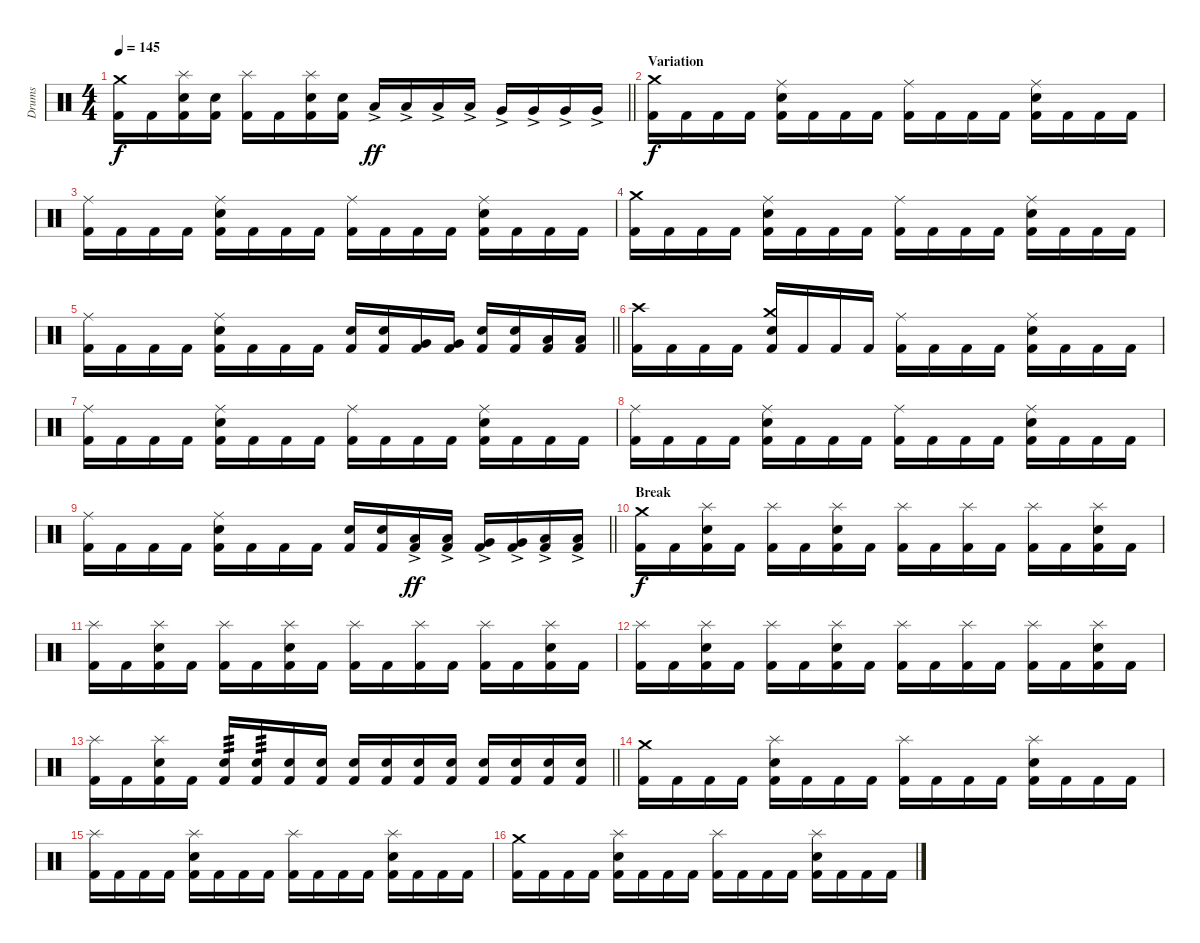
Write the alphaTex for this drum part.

\track ("Drums" "Drums") {instrument percussion}
\staff {score}
\articulation defaults
\ts (4 4)
\tempo 145
\clef neutral
\barLineRight lightlight
\ks c
("Kick (hit) 2" "Crash medium (hit)").16{dy f} "Kick (hit) 2".16 ("Kick (hit) 2" "Snare (hit) 2" "Splash (hit)").16 ("Kick (hit) 2" "Snare (hit) 2").16 ("Kick (hit) 2" "Splash (hit)").16 "Kick (hit) 2".16 ("Kick (hit) 2" "Snare (hit) 2" "Splash (hit)").16 ("Kick (hit) 2" "Snare (hit) 2").16 "Low Tom (hit)"{ac}.16{dy ff} "Low Tom (hit)"{ac}.16 "Low Tom (hit)"{ac}.16 "Low Tom (hit)"{ac}.16 "Very Low Tom (hit)"{ac}.16 "Very Low Tom (hit)"{ac}.16 "Very Low Tom (hit)"{ac}.16 "Very Low Tom (hit)"{ac}.16 |
\section ("" "Variation")
("Kick (hit) 2" "Crash medium (hit)").16{dy f} "Kick (hit) 2".16 "Kick (hit) 2".16 "Kick (hit) 2".16 ("Kick (hit) 2" "Snare (hit) 2" "Ride (middle)").16 "Kick (hit) 2".16 "Kick (hit) 2".16 "Kick (hit) 2".16 ("Kick (hit) 2" "Ride (middle)").16 "Kick (hit) 2".16 "Kick (hit) 2".16 "Kick (hit) 2".16 ("Kick (hit) 2" "Snare (hit) 2" "Ride (middle)").16 "Kick (hit) 2".16 "Kick (hit) 2".16 "Kick (hit) 2".16 |
("Kick (hit) 2" "Ride (middle)").16 "Kick (hit) 2".16 "Kick (hit) 2".16 "Kick (hit) 2".16 ("Kick (hit) 2" "Snare (hit) 2" "Ride (middle)").16 "Kick (hit) 2".16 "Kick (hit) 2".16 "Kick (hit) 2".16 ("Kick (hit) 2" "Ride (middle)").16 "Kick (hit) 2".16 "Kick (hit) 2".16 "Kick (hit) 2".16 ("Kick (hit) 2" "Snare (hit) 2" "Ride (middle)").16 "Kick (hit) 2".16 "Kick (hit) 2".16 "Kick (hit) 2".16 |
("Kick (hit) 2" "Crash medium (hit)").16 "Kick (hit) 2".16 "Kick (hit) 2".16 "Kick (hit) 2".16 ("Kick (hit) 2" "Snare (hit) 2" "Ride (middle)").16 "Kick (hit) 2".16 "Kick (hit) 2".16 "Kick (hit) 2".16 ("Kick (hit) 2" "Ride (middle)").16 "Kick (hit) 2".16 "Kick (hit) 2".16 "Kick (hit) 2".16 ("Kick (hit) 2" "Snare (hit) 2" "Ride (middle)").16 "Kick (hit) 2".16 "Kick (hit) 2".16 "Kick (hit) 2".16 |
\barLineRight lightlight
("Kick (hit) 2" "Ride (middle)").16 "Kick (hit) 2".16 "Kick (hit) 2".16 "Kick (hit) 2".16 ("Kick (hit) 2" "Snare (hit) 2" "Ride (middle)").16 "Kick (hit) 2".16 "Kick (hit) 2".16 "Kick (hit) 2".16 ("Kick (hit) 2" "Snare (hit) 2").16 ("Kick (hit) 2" "Snare (hit) 2").16 ("Kick (hit) 2" "Very Low Tom (hit)").16 ("Kick (hit) 2" "Very Low Tom (hit)").16 ("Kick (hit) 2" "Snare (hit) 2").16 ("Kick (hit) 2" "Snare (hit) 2").16 ("Kick (hit) 2" "Low Floor Tom (hit)").16 ("Kick (hit) 2" "Low Floor Tom (hit)").16 |
\section ("" "")
("Kick (hit) 2" "Crash high (hit)").16 "Kick (hit) 2".16 "Kick (hit) 2".16 "Kick (hit) 2".16 ("Kick (hit) 2" "Snare (hit) 2" "Crash medium (hit)").16 "Kick (hit) 2".16 "Kick (hit) 2".16 "Kick (hit) 2".16 ("Kick (hit) 2" "Ride (middle)").16 "Kick (hit) 2".16 "Kick (hit) 2".16 "Kick (hit) 2".16 ("Kick (hit) 2" "Snare (hit) 2" "Ride (middle)").16 "Kick (hit) 2".16 "Kick (hit) 2".16 "Kick (hit) 2".16 |
("Kick (hit) 2" "Ride (middle)").16 "Kick (hit) 2".16 "Kick (hit) 2".16 "Kick (hit) 2".16 ("Kick (hit) 2" "Snare (hit) 2" "Ride (middle)").16 "Kick (hit) 2".16 "Kick (hit) 2".16 "Kick (hit) 2".16 ("Kick (hit) 2" "Ride (middle)").16 "Kick (hit) 2".16 "Kick (hit) 2".16 "Kick (hit) 2".16 ("Kick (hit) 2" "Snare (hit) 2" "Ride (middle)").16 "Kick (hit) 2".16 "Kick (hit) 2".16 "Kick (hit) 2".16 |
("Kick (hit) 2" "Ride (middle)").16 "Kick (hit) 2".16 "Kick (hit) 2".16 "Kick (hit) 2".16 ("Kick (hit) 2" "Snare (hit) 2" "Ride (middle)").16 "Kick (hit) 2".16 "Kick (hit) 2".16 "Kick (hit) 2".16 ("Kick (hit) 2" "Ride (middle)").16 "Kick (hit) 2".16 "Kick (hit) 2".16 "Kick (hit) 2".16 ("Kick (hit) 2" "Snare (hit) 2" "Ride (middle)").16 "Kick (hit) 2".16 "Kick (hit) 2".16 "Kick (hit) 2".16 |
\barLineRight lightlight
("Kick (hit) 2" "Ride (middle)").16 "Kick (hit) 2".16 "Kick (hit) 2".16 "Kick (hit) 2".16 ("Kick (hit) 2" "Snare (hit) 2" "Ride (middle)").16 "Kick (hit) 2".16 "Kick (hit) 2".16 "Kick (hit) 2".16 ("Kick (hit) 2" "Snare (hit) 2").16 ("Kick (hit) 2" "Snare (hit) 2").16 ("Kick (hit) 2" "Low Tom (hit)"{ac}).16{dy ff} ("Kick (hit) 2" "Low Tom (hit)"{ac}).16 ("Kick (hit) 2" "Very Low Tom (hit)"{ac}).16 ("Kick (hit) 2" "Very Low Tom (hit)"{ac}).16 ("Kick (hit) 2" "Low Floor Tom (hit)"{ac}).16 ("Kick (hit) 2" "Low Floor Tom (hit)"{ac}).16 |
\section ("" "Break")
("Kick (hit) 2" "Crash medium (hit)").16{dy f} "Kick (hit) 2".16 ("Kick (hit) 2" "Snare (hit) 2" "Splash (hit)").16 "Kick (hit) 2".16 ("Kick (hit) 2" "Splash (hit)").16 "Kick (hit) 2".16 ("Kick (hit) 2" "Snare (hit) 2" "Splash (hit)").16 "Kick (hit) 2".16 ("Kick (hit) 2" "Splash (hit)").16 "Kick (hit) 2".16 ("Kick (hit) 2" "Splash (hit)").16 "Kick (hit) 2".16 ("Kick (hit) 2" "Splash (hit)").16 "Kick (hit) 2".16 ("Kick (hit) 2" "Snare (hit) 2" "Splash (hit)").16 "Kick (hit) 2".16 |
("Kick (hit) 2" "Splash (hit)").16 "Kick (hit) 2".16 ("Kick (hit) 2" "Snare (hit) 2" "Splash (hit)").16 "Kick (hit) 2".16 ("Kick (hit) 2" "Splash (hit)").16 "Kick (hit) 2".16 ("Kick (hit) 2" "Snare (hit) 2" "Splash (hit)").16 "Kick (hit) 2".16 ("Kick (hit) 2" "Splash (hit)").16 "Kick (hit) 2".16 ("Kick (hit) 2" "Splash (hit)").16 "Kick (hit) 2".16 ("Kick (hit) 2" "Splash (hit)").16 "Kick (hit) 2".16 ("Kick (hit) 2" "Snare (hit) 2" "Splash (hit)").16 "Kick (hit) 2".16 |
("Kick (hit) 2" "Splash (hit)").16 "Kick (hit) 2".16 ("Kick (hit) 2" "Snare (hit) 2" "Splash (hit)").16 "Kick (hit) 2".16 ("Kick (hit) 2" "Splash (hit)").16 "Kick (hit) 2".16 ("Kick (hit) 2" "Snare (hit) 2" "Splash (hit)").16 "Kick (hit) 2".16 ("Kick (hit) 2" "Splash (hit)").16 "Kick (hit) 2".16 ("Kick (hit) 2" "Splash (hit)").16 "Kick (hit) 2".16 ("Kick (hit) 2" "Splash (hit)").16 "Kick (hit) 2".16 ("Kick (hit) 2" "Snare (hit) 2" "Splash (hit)").16 "Kick (hit) 2".16 |
\barLineRight lightlight
("Kick (hit) 2" "Splash (hit)").16 "Kick (hit) 2".16 ("Kick (hit) 2" "Snare (hit) 2" "Splash (hit)").16 "Kick (hit) 2".16 ("Kick (hit) 2" "Snare (hit) 2").16{tp 3} ("Kick (hit) 2" "Snare (hit) 2").16{tp 3} ("Kick (hit) 2" "Snare (hit) 2").16 ("Kick (hit) 2" "Snare (hit) 2").16 ("Kick (hit) 2" "Snare (hit) 2").16 ("Kick (hit) 2" "Snare (hit) 2").16 ("Kick (hit) 2" "Snare (hit) 2").16 ("Kick (hit) 2" "Snare (hit) 2").16 ("Kick (hit) 2" "Snare (hit) 2").16 ("Kick (hit) 2" "Snare (hit) 2").16 ("Kick (hit) 2" "Snare (hit) 2").16 ("Kick (hit) 2" "Snare (hit) 2").16 |
\section ("" "")
("Kick (hit) 2" "Crash medium (hit)").16 "Kick (hit) 2".16 "Kick (hit) 2".16 "Kick (hit) 2".16 ("Kick (hit) 2" "Snare (hit) 2" "Splash (hit)").16 "Kick (hit) 2".16 "Kick (hit) 2".16 "Kick (hit) 2".16 ("Kick (hit) 2" "Splash (hit)").16 "Kick (hit) 2".16 "Kick (hit) 2".16 "Kick (hit) 2".16 ("Kick (hit) 2" "Snare (hit) 2" "Splash (hit)").16 "Kick (hit) 2".16 "Kick (hit) 2".16 "Kick (hit) 2".16 |
("Kick (hit) 2" "Splash (hit)").16 "Kick (hit) 2".16 "Kick (hit) 2".16 "Kick (hit) 2".16 ("Kick (hit) 2" "Snare (hit) 2" "Splash (hit)").16 "Kick (hit) 2".16 "Kick (hit) 2".16 "Kick (hit) 2".16 ("Kick (hit) 2" "Splash (hit)").16 "Kick (hit) 2".16 "Kick (hit) 2".16 "Kick (hit) 2".16 ("Kick (hit) 2" "Snare (hit) 2" "Splash (hit)").16 "Kick (hit) 2".16 "Kick (hit) 2".16 "Kick (hit) 2".16 |
("Kick (hit) 2" "Crash medium (hit)").16 "Kick (hit) 2".16 "Kick (hit) 2".16 "Kick (hit) 2".16 ("Kick (hit) 2" "Snare (hit) 2" "Splash (hit)").16 "Kick (hit) 2".16 "Kick (hit) 2".16 "Kick (hit) 2".16 ("Kick (hit) 2" "Splash (hit)").16 "Kick (hit) 2".16 "Kick (hit) 2".16 "Kick (hit) 2".16 ("Kick (hit) 2" "Snare (hit) 2" "Splash (hit)").16 "Kick (hit) 2".16 "Kick (hit) 2".16 "Kick (hit) 2".16
